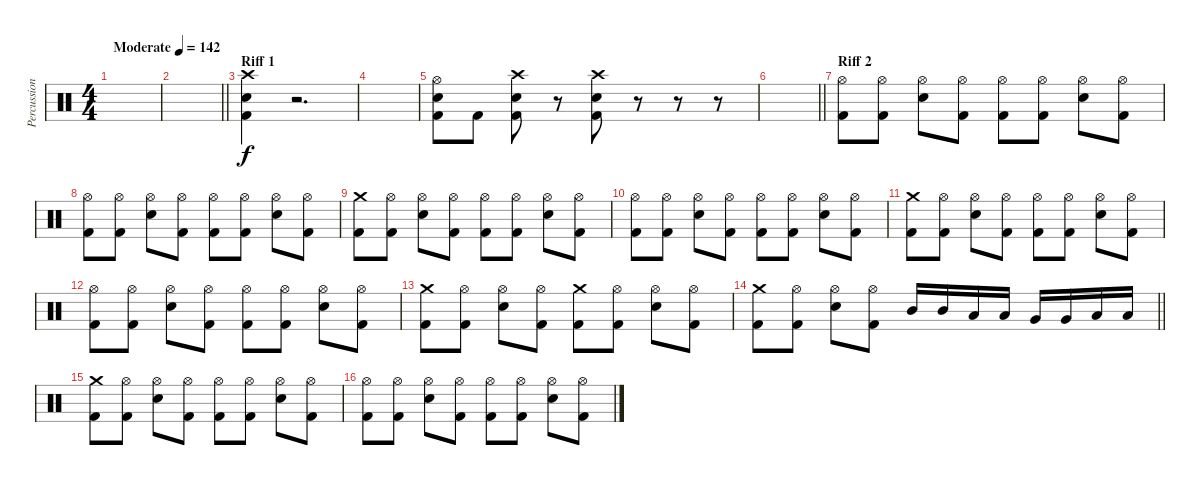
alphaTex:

\track ("Percussions" "Percussion") {instrument percussion}
\staff {score}
\articulation defaults
\ts (4 4)
\tempo (142 "Moderate")
\clef neutral
\ks c
|
\barLineRight lightlight
|
\section ("" "Riff 1")
("Crash high (hit)" "Snare (hit) 2" "Kick (hit) 2").4 r.2{d} |
|
("Hi-Hat (open)" "Snare (hit) 2" "Kick (hit) 2").8 "Kick (hit) 2".8 ("Crash high (hit)" "Snare (hit) 2" "Kick (hit) 2").8 r.8 ("Crash high (hit)" "Snare (hit) 2" "Kick (hit) 2").8 r.8 r.8 r.8 |
\barLineRight lightlight
|
\section ("" "Riff 2")
("Hi-Hat (open)" "Kick (hit) 2").8 ("Hi-Hat (open)" "Kick (hit) 2").8 ("Hi-Hat (open)" "Electric Snare (hit)").8 ("Hi-Hat (open)" "Kick (hit) 2").8 ("Hi-Hat (open)" "Kick (hit) 2").8 ("Hi-Hat (open)" "Kick (hit) 2").8 ("Hi-Hat (open)" "Electric Snare (hit)").8 ("Hi-Hat (open)" "Kick (hit) 2").8 |
("Hi-Hat (open)" "Kick (hit) 2").8 ("Hi-Hat (open)" "Kick (hit) 2").8 ("Hi-Hat (open)" "Electric Snare (hit)").8 ("Hi-Hat (open)" "Kick (hit) 2").8 ("Hi-Hat (open)" "Kick (hit) 2").8 ("Hi-Hat (open)" "Kick (hit) 2").8 ("Hi-Hat (open)" "Electric Snare (hit)").8 ("Hi-Hat (open)" "Kick (hit) 2").8 |
("Crash medium (hit)" "Kick (hit) 2").8 ("Hi-Hat (open)" "Kick (hit) 2").8 ("Hi-Hat (open)" "Electric Snare (hit)").8 ("Hi-Hat (open)" "Kick (hit) 2").8 ("Hi-Hat (open)" "Kick (hit) 2").8 ("Hi-Hat (open)" "Kick (hit) 2").8 ("Hi-Hat (open)" "Electric Snare (hit)").8 ("Hi-Hat (open)" "Kick (hit) 2").8 |
("Hi-Hat (open)" "Kick (hit) 2").8 ("Hi-Hat (open)" "Kick (hit) 2").8 ("Hi-Hat (open)" "Electric Snare (hit)").8 ("Hi-Hat (open)" "Kick (hit) 2").8 ("Hi-Hat (open)" "Kick (hit) 2").8 ("Hi-Hat (open)" "Kick (hit) 2").8 ("Hi-Hat (open)" "Electric Snare (hit)").8 ("Hi-Hat (open)" "Kick (hit) 2").8 |
("Crash medium (hit)" "Kick (hit) 2").8 ("Hi-Hat (open)" "Kick (hit) 2").8 ("Hi-Hat (open)" "Electric Snare (hit)").8 ("Hi-Hat (open)" "Kick (hit) 2").8 ("Hi-Hat (open)" "Kick (hit) 2").8 ("Hi-Hat (open)" "Kick (hit) 2").8 ("Hi-Hat (open)" "Electric Snare (hit)").8 ("Hi-Hat (open)" "Kick (hit) 2").8 |
("Hi-Hat (open)" "Kick (hit) 2").8 ("Hi-Hat (open)" "Kick (hit) 2").8 ("Hi-Hat (open)" "Electric Snare (hit)").8 ("Hi-Hat (open)" "Kick (hit) 2").8 ("Hi-Hat (open)" "Kick (hit) 2").8 ("Hi-Hat (open)" "Kick (hit) 2").8 ("Hi-Hat (open)" "Electric Snare (hit)").8 ("Hi-Hat (open)" "Kick (hit) 2").8 |
("Crash medium (hit)" "Kick (hit) 2").8 ("Hi-Hat (open)" "Kick (hit) 2").8 ("Hi-Hat (open)" "Electric Snare (hit)").8 ("Hi-Hat (open)" "Kick (hit) 2").8 ("Crash medium (hit)" "Kick (hit) 2").8 ("Hi-Hat (open)" "Kick (hit) 2").8 ("Hi-Hat (open)" "Electric Snare (hit)").8 ("Hi-Hat (open)" "Kick (hit) 2").8 |
\barLineRight lightlight
("Crash medium (hit)" "Kick (hit) 2").8 ("Hi-Hat (open)" "Kick (hit) 2").8 ("Hi-Hat (open)" "Electric Snare (hit)").8 ("Hi-Hat (open)" "Kick (hit) 2").8 "Mid Tom (hit)".16 "Mid Tom (hit)".16 "Low Tom (hit)".16 "Low Tom (hit)".16 "Very Low Tom (hit)".16 "Very Low Tom (hit)".16 "Low Floor Tom (hit)".16 "Low Floor Tom (hit)".16 |
("Crash medium (hit)" "Kick (hit) 2").8 ("Hi-Hat (open)" "Kick (hit) 2").8 ("Hi-Hat (open)" "Electric Snare (hit)").8 ("Hi-Hat (open)" "Kick (hit) 2").8 ("Hi-Hat (open)" "Kick (hit) 2").8 ("Hi-Hat (open)" "Kick (hit) 2").8 ("Hi-Hat (open)" "Electric Snare (hit)").8 ("Hi-Hat (open)" "Kick (hit) 2").8 |
("Hi-Hat (open)" "Kick (hit) 2").8 ("Hi-Hat (open)" "Kick (hit) 2").8 ("Hi-Hat (open)" "Electric Snare (hit)").8 ("Hi-Hat (open)" "Kick (hit) 2").8 ("Hi-Hat (open)" "Kick (hit) 2").8 ("Hi-Hat (open)" "Kick (hit) 2").8 ("Hi-Hat (open)" "Electric Snare (hit)").8 ("Hi-Hat (open)" "Kick (hit) 2").8
